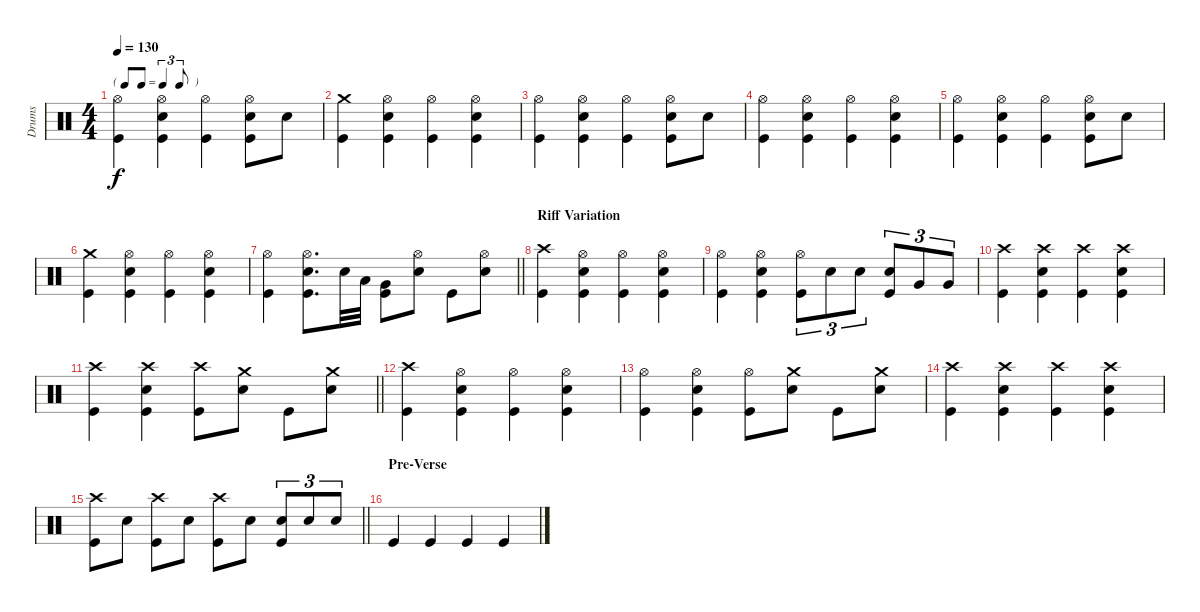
\track ("Drums" "Drums") {instrument percussion}
\staff {score}
\articulation defaults
\ts (4 4)
\tf triplet8th
\tempo 130
\clef neutral
\ks c
("Hi-Hat (open)" "Kick (hit)").4{dy f} ("Hi-Hat (open)" "Snare (hit) 2" "Kick (hit)").4 ("Hi-Hat (open)" "Kick (hit)").4 ("Hi-Hat (open)" "Snare (hit) 2" "Kick (hit)").8 "Snare (hit) 2".8 |
("Crash medium (hit)" "Kick (hit)").4 ("Hi-Hat (open)" "Snare (hit) 2" "Kick (hit)").4 ("Hi-Hat (open)" "Kick (hit)").4 ("Hi-Hat (open)" "Snare (hit) 2" "Kick (hit)").4 |
("Hi-Hat (open)" "Kick (hit)").4 ("Hi-Hat (open)" "Snare (hit) 2" "Kick (hit)").4 ("Hi-Hat (open)" "Kick (hit)").4 ("Hi-Hat (open)" "Snare (hit) 2" "Kick (hit)").8 "Snare (hit) 2".8 |
("Hi-Hat (open)" "Kick (hit)").4 ("Hi-Hat (open)" "Snare (hit) 2" "Kick (hit)").4 ("Hi-Hat (open)" "Kick (hit)").4 ("Hi-Hat (open)" "Snare (hit) 2" "Kick (hit)").4 |
("Hi-Hat (open)" "Kick (hit)").4 ("Hi-Hat (open)" "Snare (hit) 2" "Kick (hit)").4 ("Hi-Hat (open)" "Kick (hit)").4 ("Hi-Hat (open)" "Snare (hit) 2" "Kick (hit)").8 "Snare (hit) 2".8 |
("Crash medium (hit)" "Kick (hit)").4 ("Hi-Hat (open)" "Snare (hit) 2" "Kick (hit)").4 ("Hi-Hat (open)" "Kick (hit)").4 ("Hi-Hat (open)" "Snare (hit) 2" "Kick (hit)").4 |
\barLineRight lightlight
("Hi-Hat (open)" "Kick (hit)").4 ("Hi-Hat (open)" "Snare (hit) 2" "Kick (hit)").8{d} "Snare (hit) 2".32 "Low Tom (hit)".32 ("Very Low Tom (hit)" "Kick (hit)").8 ("Hi-Hat (open)" "Snare (hit) 2").8 "Kick (hit)".8 ("Snare (hit) 2" "Hi-Hat (open)").8 |
\section ("" "Riff Variation")
("Crash high (hit)" "Kick (hit)").4 ("Hi-Hat (open)" "Snare (hit) 2" "Kick (hit)").4 ("Hi-Hat (open)" "Kick (hit)").4 ("Hi-Hat (open)" "Snare (hit) 2" "Kick (hit)").4 |
("Hi-Hat (open)" "Kick (hit)").4 ("Hi-Hat (open)" "Snare (hit) 2" "Kick (hit)").4 ("Kick (hit)" "Hi-Hat (open)").8{tu (3 2)} "Snare (hit) 2".8{tu (3 2)} "Snare (hit) 2".8{tu (3 2)} ("Kick (hit)" "Snare (hit) 2").8{tu (3 2)} "Very Low Tom (hit)".8{tu (3 2)} "Very Low Tom (hit)".8{tu (3 2)} |
("Crash high (hit)" "Kick (hit)").4 ("Crash high (hit)" "Snare (hit) 2" "Kick (hit)").4 ("Crash high (hit)" "Kick (hit)").4 ("Crash high (hit)" "Snare (hit) 2" "Kick (hit)").4 |
\barLineRight lightlight
("Crash high (hit)" "Kick (hit)").4 ("Crash high (hit)" "Snare (hit) 2" "Kick (hit)").4 ("Crash high (hit)" "Kick (hit)").8 ("Crash medium (hit)" "Snare (hit) 2").8 "Kick (hit)".8 ("Crash medium (hit)" "Snare (hit) 2").8 |
("Crash high (hit)" "Kick (hit)").4 ("Hi-Hat (open)" "Snare (hit) 2" "Kick (hit)").4 ("Hi-Hat (open)" "Kick (hit)").4 ("Hi-Hat (open)" "Snare (hit) 2" "Kick (hit)").4 |
("Hi-Hat (open)" "Kick (hit)").4 ("Hi-Hat (open)" "Snare (hit) 2" "Kick (hit)").4 ("Hi-Hat (open)" "Kick (hit)").8 ("Crash medium (hit)" "Snare (hit) 2").8 "Kick (hit)".8 ("Crash medium (hit)" "Snare (hit) 2").8 |
("Crash high (hit)" "Kick (hit)").4 ("Crash high (hit)" "Snare (hit) 2" "Kick (hit)").4 ("Crash high (hit)" "Kick (hit)").4 ("Crash high (hit)" "Snare (hit) 2" "Kick (hit)").4 |
\barLineRight lightlight
("Crash high (hit)" "Kick (hit)").8 "Snare (hit) 2".8 ("Crash high (hit)" "Kick (hit)").8 "Snare (hit) 2".8 ("Crash high (hit)" "Kick (hit)").8 "Snare (hit) 2".8 ("Kick (hit)" "Snare (hit) 2").8{tu (3 2)} "Snare (hit) 2".8{tu (3 2)} "Snare (hit) 2".8{tu (3 2)} |
\section ("" "Pre-Verse")
"Kick (hit)".4 "Kick (hit)".4 "Kick (hit)".4 "Kick (hit)".4
